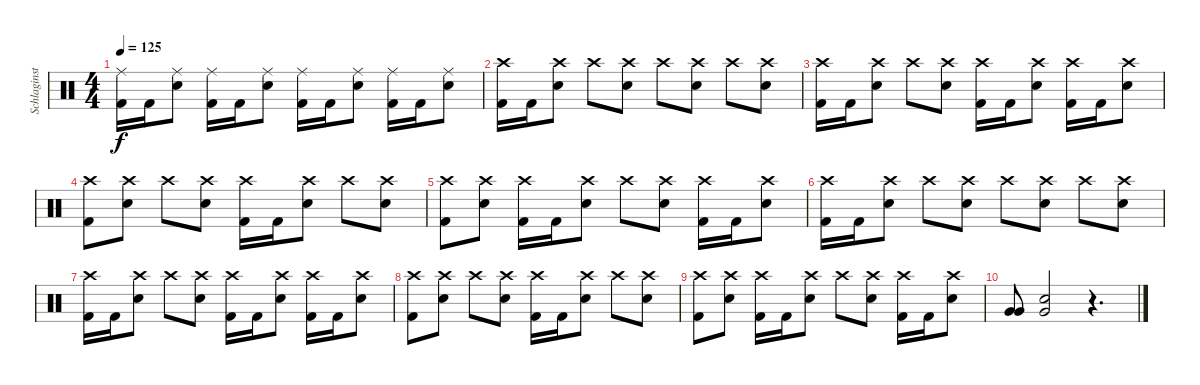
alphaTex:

\track ("Schlaginstrumente - Auswahl" "Schlaginst") {instrument percussion}
\staff {score}
\articulation defaults
\ts (4 4)
\tempo 125
\clef neutral
\ks c
("Ride (middle)" "Kick (hit) 2").16{dy f} "Kick (hit) 2".16 ("Ride (middle)" "Snare (hit) 2").8 ("Ride (middle)" "Kick (hit) 2").16 "Kick (hit) 2".16 ("Ride (middle)" "Snare (hit) 2").8 ("Ride (middle)" "Kick (hit) 2").16 "Kick (hit) 2".16 ("Ride (middle)" "Snare (hit) 2").8 ("Ride (middle)" "Kick (hit) 2").16 "Kick (hit) 2".16 ("Ride (middle)" "Snare (hit) 2").8 |
("Crash high (hit)" "Kick (hit) 2").16 "Kick (hit) 2".16 ("Crash high (hit)" "Snare (hit) 2").8 "Crash high (hit)".8 ("Crash high (hit)" "Snare (hit) 2").8 "Crash high (hit)".8 ("Crash high (hit)" "Snare (hit) 2").8 "Crash high (hit)".8 ("Crash high (hit)" "Snare (hit) 2").8 |
("Crash high (hit)" "Kick (hit) 2").16 "Kick (hit) 2".16 ("Crash high (hit)" "Snare (hit) 2").8 "Crash high (hit)".8 ("Crash high (hit)" "Snare (hit) 2").8 ("Crash high (hit)" "Kick (hit) 2").16 "Kick (hit) 2".16 ("Crash high (hit)" "Snare (hit) 2").8 ("Crash high (hit)" "Kick (hit) 2").16 "Kick (hit) 2".16 ("Crash high (hit)" "Snare (hit) 2").8 |
("Crash high (hit)" "Kick (hit) 2").8 ("Crash high (hit)" "Snare (hit) 2").8 "Crash high (hit)".8 ("Crash high (hit)" "Snare (hit) 2").8 ("Crash high (hit)" "Kick (hit) 2").16 "Kick (hit) 2".16 ("Crash high (hit)" "Snare (hit) 2").8 "Crash high (hit)".8 ("Crash high (hit)" "Snare (hit) 2").8 |
("Crash high (hit)" "Kick (hit) 2").8 ("Crash high (hit)" "Snare (hit) 2").8 ("Crash high (hit)" "Kick (hit) 2").16 "Kick (hit) 2".16 ("Crash high (hit)" "Snare (hit) 2").8 "Crash high (hit)".8 ("Crash high (hit)" "Snare (hit) 2").8 ("Crash high (hit)" "Kick (hit) 2").16 "Kick (hit) 2".16 ("Crash high (hit)" "Snare (hit) 2").8 |
("Crash high (hit)" "Kick (hit) 2").16 "Kick (hit) 2".16 ("Crash high (hit)" "Snare (hit) 2").8 "Crash high (hit)".8 ("Crash high (hit)" "Snare (hit) 2").8 "Crash high (hit)".8 ("Crash high (hit)" "Snare (hit) 2").8 "Crash high (hit)".8 ("Crash high (hit)" "Snare (hit) 2").8 |
("Crash high (hit)" "Kick (hit) 2").16 "Kick (hit) 2".16 ("Crash high (hit)" "Snare (hit) 2").8 "Crash high (hit)".8 ("Crash high (hit)" "Snare (hit) 2").8 ("Crash high (hit)" "Kick (hit) 2").16 "Kick (hit) 2".16 ("Crash high (hit)" "Snare (hit) 2").8 ("Crash high (hit)" "Kick (hit) 2").16 "Kick (hit) 2".16 ("Crash high (hit)" "Snare (hit) 2").8 |
("Crash high (hit)" "Kick (hit) 2").8 ("Crash high (hit)" "Snare (hit) 2").8 "Crash high (hit)".8 ("Crash high (hit)" "Snare (hit) 2").8 ("Crash high (hit)" "Kick (hit) 2").16 "Kick (hit) 2".16 ("Crash high (hit)" "Snare (hit) 2").8 "Crash high (hit)".8 ("Crash high (hit)" "Snare (hit) 2").8 |
("Crash high (hit)" "Kick (hit) 2").8 ("Crash high (hit)" "Snare (hit) 2").8 ("Crash high (hit)" "Kick (hit) 2").16 "Kick (hit) 2".16 ("Crash high (hit)" "Snare (hit) 2").8 "Crash high (hit)".8 ("Crash high (hit)" "Snare (hit) 2").8 ("Crash high (hit)" "Kick (hit) 2").16 "Kick (hit) 2".16 ("Crash high (hit)" "Snare (hit) 2").8 |
("Very Low Tom (hit)" "Very Low Tom (hit)").8 ("Snare (hit) 2" "Very Low Tom (hit)").2 r.4{d}
